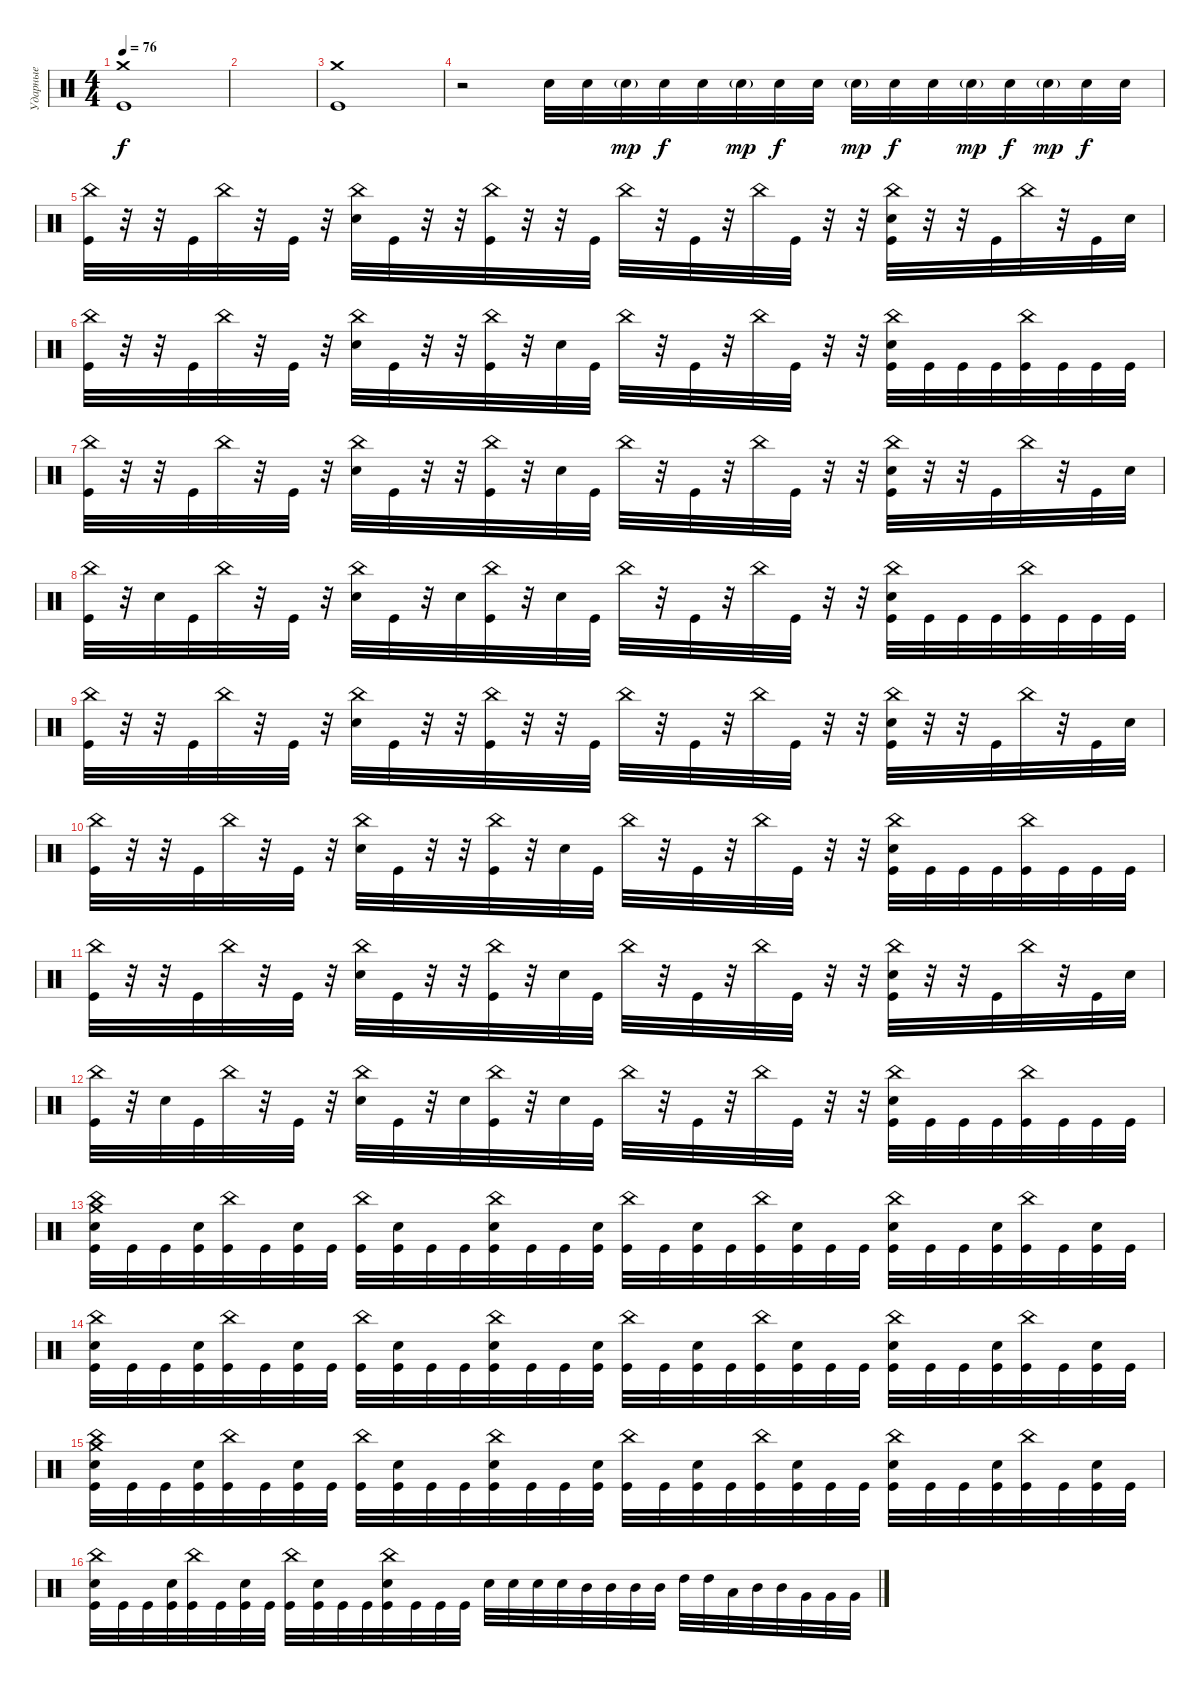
\track ("Ударные" "Ударные") {instrument percussion}
\staff {score}
\articulation defaults
\ts (4 4)
\tempo 76
\clef neutral
\ks c
("Crash medium (hit)" "Kick (hit)").1{dy f} |
|
("Crash medium (hit)" "Kick (hit)").1 |
r.2 "Snare (hit) 2".32 "Snare (hit) 2".32 "Snare (hit) 2"{g}.32{dy mp} "Snare (hit) 2".32{dy f} "Snare (hit) 2".32 "Snare (hit) 2"{g}.32{dy mp} "Snare (hit) 2".32{dy f} "Snare (hit) 2".32 "Snare (hit) 2"{g}.32{dy mp} "Snare (hit) 2".32{dy f} "Snare (hit) 2".32 "Snare (hit) 2"{g}.32{dy mp} "Snare (hit) 2".32{dy f} "Snare (hit) 2"{g}.32{dy mp} "Snare (hit) 2".32{dy f} "Snare (hit) 2".32 |
("China (hit)" "Kick (hit)").32 r.32 r.32 "Kick (hit)".32 "China (hit)".32 r.32 "Kick (hit)".32 r.32 ("China (hit)" "Snare (hit) 2").32 "Kick (hit)".32 r.32 r.32 ("China (hit)" "Kick (hit)").32 r.32 r.32 "Kick (hit)".32 "China (hit)".32 r.32 "Kick (hit)".32 r.32 "China (hit)".32 "Kick (hit)".32 r.32 r.32 ("China (hit)" "Snare (hit) 2" "Kick (hit)").32 r.32 r.32 "Kick (hit)".32 "China (hit)".32 r.32 "Kick (hit)".32 "Snare (hit) 2".32 |
("China (hit)" "Kick (hit)").32 r.32 r.32 "Kick (hit)".32 "China (hit)".32 r.32 "Kick (hit)".32 r.32 ("China (hit)" "Snare (hit) 2").32 "Kick (hit)".32 r.32 r.32 ("China (hit)" "Kick (hit)").32 r.32 "Snare (hit) 2".32 "Kick (hit)".32 "China (hit)".32 r.32 "Kick (hit)".32 r.32 "China (hit)".32 "Kick (hit)".32 r.32 r.32 ("China (hit)" "Snare (hit) 2" "Kick (hit)").32 "Kick (hit)".32 "Kick (hit)".32 "Kick (hit)".32 ("China (hit)" "Kick (hit)").32 "Kick (hit)".32 "Kick (hit)".32 "Kick (hit)".32 |
("China (hit)" "Kick (hit)").32 r.32 r.32 "Kick (hit)".32 "China (hit)".32 r.32 "Kick (hit)".32 r.32 ("China (hit)" "Snare (hit) 2").32 "Kick (hit)".32 r.32 r.32 ("China (hit)" "Kick (hit)").32 r.32 "Snare (hit) 2".32 "Kick (hit)".32 "China (hit)".32 r.32 "Kick (hit)".32 r.32 "China (hit)".32 "Kick (hit)".32 r.32 r.32 ("China (hit)" "Snare (hit) 2" "Kick (hit)").32 r.32 r.32 "Kick (hit)".32 "China (hit)".32 r.32 "Kick (hit)".32 "Snare (hit) 2".32 |
("China (hit)" "Kick (hit)").32 r.32 "Snare (hit) 2".32 "Kick (hit)".32 "China (hit)".32 r.32 "Kick (hit)".32 r.32 ("China (hit)" "Snare (hit) 2").32 "Kick (hit)".32 r.32 "Snare (hit) 2".32 ("China (hit)" "Kick (hit)").32 r.32 "Snare (hit) 2".32 "Kick (hit)".32 "China (hit)".32 r.32 "Kick (hit)".32 r.32 "China (hit)".32 "Kick (hit)".32 r.32 r.32 ("China (hit)" "Snare (hit) 2" "Kick (hit)").32 "Kick (hit)".32 "Kick (hit)".32 "Kick (hit)".32 ("China (hit)" "Kick (hit)").32 "Kick (hit)".32 "Kick (hit)".32 "Kick (hit)".32 |
("China (hit)" "Kick (hit)").32 r.32 r.32 "Kick (hit)".32 "China (hit)".32 r.32 "Kick (hit)".32 r.32 ("China (hit)" "Snare (hit) 2").32 "Kick (hit)".32 r.32 r.32 ("China (hit)" "Kick (hit)").32 r.32 r.32 "Kick (hit)".32 "China (hit)".32 r.32 "Kick (hit)".32 r.32 "China (hit)".32 "Kick (hit)".32 r.32 r.32 ("China (hit)" "Snare (hit) 2" "Kick (hit)").32 r.32 r.32 "Kick (hit)".32 "China (hit)".32 r.32 "Kick (hit)".32 "Snare (hit) 2".32 |
("China (hit)" "Kick (hit)").32 r.32 r.32 "Kick (hit)".32 "China (hit)".32 r.32 "Kick (hit)".32 r.32 ("China (hit)" "Snare (hit) 2").32 "Kick (hit)".32 r.32 r.32 ("China (hit)" "Kick (hit)").32 r.32 "Snare (hit) 2".32 "Kick (hit)".32 "China (hit)".32 r.32 "Kick (hit)".32 r.32 "China (hit)".32 "Kick (hit)".32 r.32 r.32 ("China (hit)" "Snare (hit) 2" "Kick (hit)").32 "Kick (hit)".32 "Kick (hit)".32 "Kick (hit)".32 ("China (hit)" "Kick (hit)").32 "Kick (hit)".32 "Kick (hit)".32 "Kick (hit)".32 |
("China (hit)" "Kick (hit)").32 r.32 r.32 "Kick (hit)".32 "China (hit)".32 r.32 "Kick (hit)".32 r.32 ("China (hit)" "Snare (hit) 2").32 "Kick (hit)".32 r.32 r.32 ("China (hit)" "Kick (hit)").32 r.32 "Snare (hit) 2".32 "Kick (hit)".32 "China (hit)".32 r.32 "Kick (hit)".32 r.32 "China (hit)".32 "Kick (hit)".32 r.32 r.32 ("China (hit)" "Snare (hit) 2" "Kick (hit)").32 r.32 r.32 "Kick (hit)".32 "China (hit)".32 r.32 "Kick (hit)".32 "Snare (hit) 2".32 |
("China (hit)" "Kick (hit)").32 r.32 "Snare (hit) 2".32 "Kick (hit)".32 "China (hit)".32 r.32 "Kick (hit)".32 r.32 ("China (hit)" "Snare (hit) 2").32 "Kick (hit)".32 r.32 "Snare (hit) 2".32 ("China (hit)" "Kick (hit)").32 r.32 "Snare (hit) 2".32 "Kick (hit)".32 "China (hit)".32 r.32 "Kick (hit)".32 r.32 "China (hit)".32 "Kick (hit)".32 r.32 r.32 ("China (hit)" "Snare (hit) 2" "Kick (hit)").32 "Kick (hit)".32 "Kick (hit)".32 "Kick (hit)".32 ("China (hit)" "Kick (hit)").32 "Kick (hit)".32 "Kick (hit)".32 "Kick (hit)".32 |
("Crash medium (hit)" "China (hit)" "Snare (hit) 2" "Kick (hit)").32 "Kick (hit)".32 "Kick (hit)".32 ("Snare (hit) 2" "Kick (hit)").32 ("China (hit)" "Kick (hit)").32 "Kick (hit)".32 ("Snare (hit) 2" "Kick (hit)").32 "Kick (hit)".32 ("China (hit)" "Kick (hit)").32 ("Snare (hit) 2" "Kick (hit)").32 "Kick (hit)".32 "Kick (hit)".32 ("China (hit)" "Snare (hit) 2" "Kick (hit)").32 "Kick (hit)".32 "Kick (hit)".32 ("Snare (hit) 2" "Kick (hit)").32 ("China (hit)" "Kick (hit)").32 "Kick (hit)".32 ("Snare (hit) 2" "Kick (hit)").32 "Kick (hit)".32 ("China (hit)" "Kick (hit)").32 ("Snare (hit) 2" "Kick (hit)").32 "Kick (hit)".32 "Kick (hit)".32 ("China (hit)" "Snare (hit) 2" "Kick (hit)").32 "Kick (hit)".32 "Kick (hit)".32 ("Snare (hit) 2" "Kick (hit)").32 ("China (hit)" "Kick (hit)").32 "Kick (hit)".32 ("Snare (hit) 2" "Kick (hit)").32 "Kick (hit)".32 |
("China (hit)" "Snare (hit) 2" "Kick (hit)").32 "Kick (hit)".32 "Kick (hit)".32 ("Snare (hit) 2" "Kick (hit)").32 ("China (hit)" "Kick (hit)").32 "Kick (hit)".32 ("Snare (hit) 2" "Kick (hit)").32 "Kick (hit)".32 ("China (hit)" "Kick (hit)").32 ("Snare (hit) 2" "Kick (hit)").32 "Kick (hit)".32 "Kick (hit)".32 ("China (hit)" "Snare (hit) 2" "Kick (hit)").32 "Kick (hit)".32 "Kick (hit)".32 ("Snare (hit) 2" "Kick (hit)").32 ("China (hit)" "Kick (hit)").32 "Kick (hit)".32 ("Snare (hit) 2" "Kick (hit)").32 "Kick (hit)".32 ("China (hit)" "Kick (hit)").32 ("Snare (hit) 2" "Kick (hit)").32 "Kick (hit)".32 "Kick (hit)".32 ("China (hit)" "Snare (hit) 2" "Kick (hit)").32 "Kick (hit)".32 "Kick (hit)".32 ("Snare (hit) 2" "Kick (hit)").32 ("China (hit)" "Kick (hit)").32 "Kick (hit)".32 ("Snare (hit) 2" "Kick (hit)").32 "Kick (hit)".32 |
("Crash medium (hit)" "China (hit)" "Snare (hit) 2" "Kick (hit)").32 "Kick (hit)".32 "Kick (hit)".32 ("Snare (hit) 2" "Kick (hit)").32 ("China (hit)" "Kick (hit)").32 "Kick (hit)".32 ("Snare (hit) 2" "Kick (hit)").32 "Kick (hit)".32 ("China (hit)" "Kick (hit)").32 ("Snare (hit) 2" "Kick (hit)").32 "Kick (hit)".32 "Kick (hit)".32 ("China (hit)" "Snare (hit) 2" "Kick (hit)").32 "Kick (hit)".32 "Kick (hit)".32 ("Snare (hit) 2" "Kick (hit)").32 ("China (hit)" "Kick (hit)").32 "Kick (hit)".32 ("Snare (hit) 2" "Kick (hit)").32 "Kick (hit)".32 ("China (hit)" "Kick (hit)").32 ("Snare (hit) 2" "Kick (hit)").32 "Kick (hit)".32 "Kick (hit)".32 ("China (hit)" "Snare (hit) 2" "Kick (hit)").32 "Kick (hit)".32 "Kick (hit)".32 ("Snare (hit) 2" "Kick (hit)").32 ("China (hit)" "Kick (hit)").32 "Kick (hit)".32 ("Snare (hit) 2" "Kick (hit)").32 "Kick (hit)".32 |
("China (hit)" "Snare (hit) 2" "Kick (hit)").32 "Kick (hit)".32 "Kick (hit)".32 ("Snare (hit) 2" "Kick (hit)").32 ("China (hit)" "Kick (hit)").32 "Kick (hit)".32 ("Snare (hit) 2" "Kick (hit)").32 "Kick (hit)".32 ("China (hit)" "Kick (hit)").32 ("Snare (hit) 2" "Kick (hit)").32 "Kick (hit)".32 "Kick (hit)".32 ("China (hit)" "Snare (hit) 2" "Kick (hit)").32 "Kick (hit)".32 "Kick (hit)".32 "Kick (hit)".32 "Snare (hit) 2".32 "Snare (hit) 2".32 "Snare (hit) 2".32 "Snare (hit) 2".32 "Mid Tom (hit)".32 "Mid Tom (hit)".32 "Mid Tom (hit)".32 "Mid Tom (hit)".32 "High Tom (hit)".32 "High Tom (hit)".32 "Low Tom (hit)".32 "Mid Tom (hit)".32 "Mid Tom (hit)".32 "Very Low Tom (hit)".32 "Very Low Tom (hit)".32 "Very Low Tom (hit)".32
